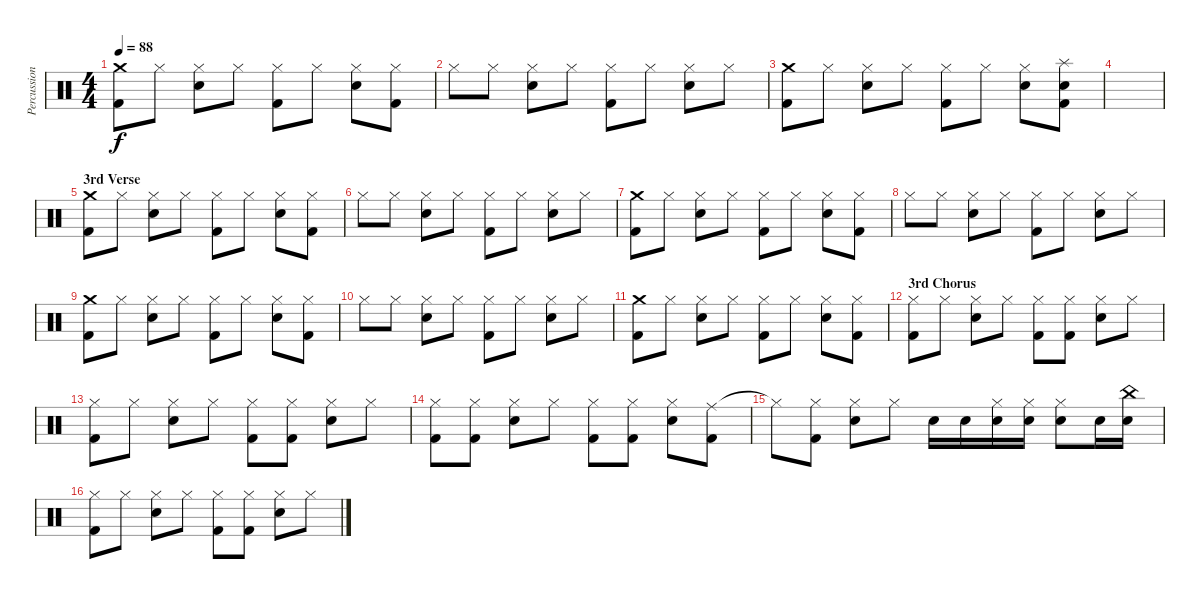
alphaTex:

\track ("Percussion" "Percussion") {instrument percussion}
\staff {score}
\articulation defaults
\ts (4 4)
\tempo 88
\clef neutral
\ks c
("Crash medium (hit)" "Kick (hit) 2").8{dy f} "Hi-Hat (closed)".8 ("Hi-Hat (closed)" "Snare (hit) 2").8 "Hi-Hat (closed)".8 ("Hi-Hat (closed)" "Kick (hit) 2").8 "Hi-Hat (closed)".8 ("Hi-Hat (closed)" "Snare (hit) 2").8 ("Hi-Hat (closed)" "Kick (hit) 2").8 |
"Hi-Hat (closed)".8 "Hi-Hat (closed)".8 ("Hi-Hat (closed)" "Snare (hit) 2").8 "Hi-Hat (closed)".8 ("Hi-Hat (closed)" "Kick (hit) 2").8 "Hi-Hat (closed)".8 ("Hi-Hat (closed)" "Snare (hit) 2").8 "Hi-Hat (closed)".8 |
("Crash medium (hit)" "Kick (hit) 2").8 "Hi-Hat (closed)".8 ("Hi-Hat (closed)" "Snare (hit) 2").8 "Hi-Hat (closed)".8 ("Hi-Hat (closed)" "Kick (hit) 2").8 "Hi-Hat (closed)".8 ("Hi-Hat (closed)" "Snare (hit) 2").8 ("Splash (hit)" "Snare (hit) 2" "Kick (hit) 2").8 |
|
\section ("" "3rd Verse")
("Crash medium (hit)" "Kick (hit) 2").8 "Hi-Hat (closed)".8 ("Hi-Hat (closed)" "Snare (hit) 2").8 "Hi-Hat (closed)".8 ("Hi-Hat (closed)" "Kick (hit) 2").8 "Hi-Hat (closed)".8 ("Hi-Hat (closed)" "Snare (hit) 2").8 ("Hi-Hat (closed)" "Kick (hit) 2").8 |
"Hi-Hat (closed)".8 "Hi-Hat (closed)".8 ("Hi-Hat (closed)" "Snare (hit) 2").8 "Hi-Hat (closed)".8 ("Hi-Hat (closed)" "Kick (hit) 2").8 "Hi-Hat (closed)".8 ("Hi-Hat (closed)" "Snare (hit) 2").8 "Hi-Hat (closed)".8 |
("Crash medium (hit)" "Kick (hit) 2").8 "Hi-Hat (closed)".8 ("Hi-Hat (closed)" "Snare (hit) 2").8 "Hi-Hat (closed)".8 ("Hi-Hat (closed)" "Kick (hit) 2").8 "Hi-Hat (closed)".8 ("Hi-Hat (closed)" "Snare (hit) 2").8 ("Hi-Hat (closed)" "Kick (hit) 2").8 |
"Hi-Hat (closed)".8 "Hi-Hat (closed)".8 ("Hi-Hat (closed)" "Snare (hit) 2").8 "Hi-Hat (closed)".8 ("Hi-Hat (closed)" "Kick (hit) 2").8 "Hi-Hat (closed)".8 ("Hi-Hat (closed)" "Snare (hit) 2").8 "Hi-Hat (closed)".8 |
("Crash medium (hit)" "Kick (hit) 2").8 "Hi-Hat (closed)".8 ("Hi-Hat (closed)" "Snare (hit) 2").8 "Hi-Hat (closed)".8 ("Hi-Hat (closed)" "Kick (hit) 2").8 "Hi-Hat (closed)".8 ("Hi-Hat (closed)" "Snare (hit) 2").8 ("Hi-Hat (closed)" "Kick (hit) 2").8 |
"Hi-Hat (closed)".8 "Hi-Hat (closed)".8 ("Hi-Hat (closed)" "Snare (hit) 2").8 "Hi-Hat (closed)".8 ("Hi-Hat (closed)" "Kick (hit) 2").8 "Hi-Hat (closed)".8 ("Hi-Hat (closed)" "Snare (hit) 2").8 "Hi-Hat (closed)".8 |
("Crash medium (hit)" "Kick (hit) 2").8 "Hi-Hat (closed)".8 ("Hi-Hat (closed)" "Snare (hit) 2").8 "Hi-Hat (closed)".8 ("Hi-Hat (closed)" "Kick (hit) 2").8 "Hi-Hat (closed)".8 ("Hi-Hat (closed)" "Snare (hit) 2").8 ("Hi-Hat (closed)" "Kick (hit) 2").8 |
\section ("" "3rd Chorus")
("Hi-Hat (closed)" "Kick (hit) 2").8 "Hi-Hat (closed)".8 ("Hi-Hat (closed)" "Snare (hit) 2").8 "Hi-Hat (closed)".8 ("Hi-Hat (closed)" "Kick (hit) 2").8 ("Hi-Hat (closed)" "Kick (hit) 2").8 ("Hi-Hat (closed)" "Snare (hit) 2").8 "Hi-Hat (closed)".8 |
("Hi-Hat (closed)" "Kick (hit) 2").8 "Hi-Hat (closed)".8 ("Hi-Hat (closed)" "Snare (hit) 2").8 "Hi-Hat (closed)".8 ("Hi-Hat (closed)" "Kick (hit) 2").8 ("Hi-Hat (closed)" "Kick (hit) 2").8 ("Hi-Hat (closed)" "Snare (hit) 2").8 "Hi-Hat (closed)".8 |
("Hi-Hat (closed)" "Kick (hit) 2").8 ("Hi-Hat (closed)" "Kick (hit) 2").8 ("Hi-Hat (closed)" "Snare (hit) 2").8 "Hi-Hat (closed)".8 ("Hi-Hat (closed)" "Kick (hit) 2").8 ("Hi-Hat (closed)" "Kick (hit) 2").8 ("Hi-Hat (closed)" "Snare (hit) 2").8 ("Ride (middle)" "Kick (hit) 2").8 |
"Hi-Hat (closed)"{t}.8 ("Hi-Hat (closed)" "Kick (hit) 2").8 ("Hi-Hat (closed)" "Snare (hit) 2").8 "Hi-Hat (closed)".8 "Snare (hit) 2".16 "Snare (hit) 2".16 ("Hi-Hat (closed)" "Snare (hit) 2").16 ("Hi-Hat (closed)" "Snare (hit) 2").16 ("Hi-Hat (closed)" "Snare (hit) 2").8 "Snare (hit) 2".16 ("China (hit)" "Snare (hit) 2").16 |
("Hi-Hat (closed)" "Kick (hit) 2").8 "Hi-Hat (closed)".8 ("Hi-Hat (closed)" "Snare (hit) 2").8 "Hi-Hat (closed)".8 ("Hi-Hat (closed)" "Kick (hit) 2").8 ("Hi-Hat (closed)" "Kick (hit) 2").8 ("Hi-Hat (closed)" "Snare (hit) 2").8 "Hi-Hat (closed)".8
